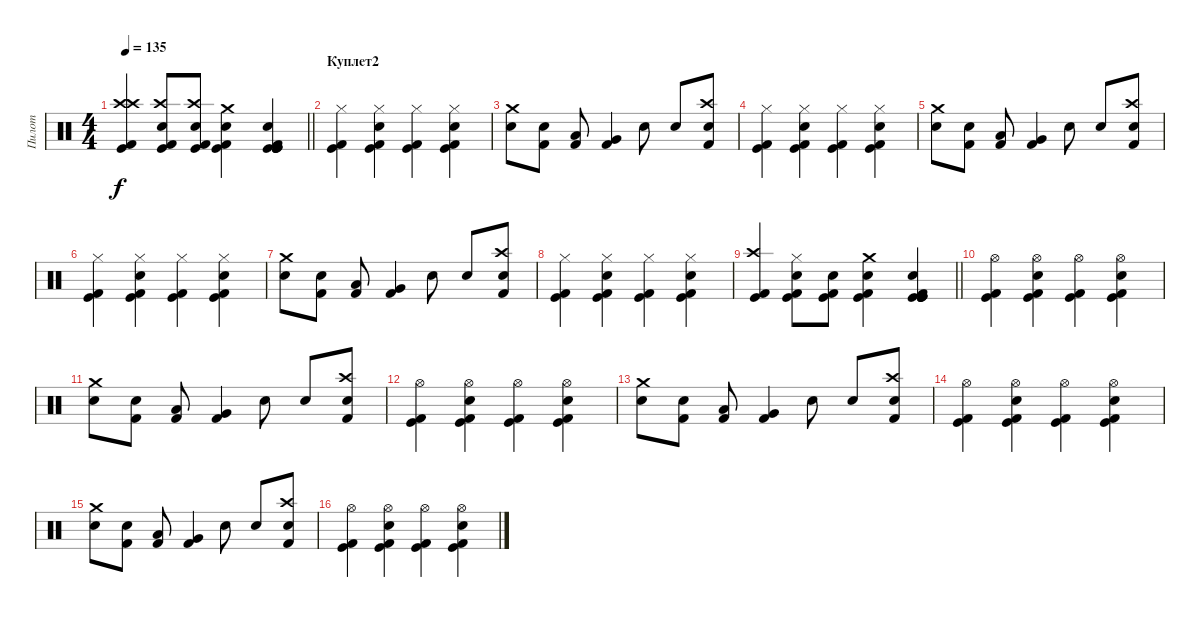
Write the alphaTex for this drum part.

\track ("Пилот" "Пилот") {instrument percussion}
\staff {score}
\articulation defaults
\ts (4 4)
\tempo 135
\clef neutral
\barLineRight lightlight
\ks c
("Kick (hit) 2" "Crash high (hit)" "Crash high (hit)" "Kick (hit)").4{dy f} ("Kick (hit) 2" "Snare (hit) 2" "Crash high (hit)" "Kick (hit)").8 ("Kick (hit) 2" "Snare (hit) 2" "Crash high (hit)" "Kick (hit)").8 ("Kick (hit) 2" "Snare (hit) 2" "Crash medium (hit)" "Kick (hit)").4 ("Kick (hit) 2" "Snare (hit) 2" "Kick (hit)" "Kick (hit)" "Kick (hit)" "Kick (hit)").4 |
\section ("" "Куплет2")
("Kick (hit) 2" "Hi-Hat (closed)" "Kick (hit)").4 ("Kick (hit) 2" "Snare (hit) 2" "Hi-Hat (closed)" "Kick (hit)").4 ("Kick (hit) 2" "Hi-Hat (closed)" "Kick (hit)").4 ("Kick (hit) 2" "Snare (hit) 2" "Hi-Hat (closed)" "Kick (hit)").4 |
("Crash medium (hit)" "Snare (hit) 2").8 ("Kick (hit) 2" "Snare (hit) 2").8 ("Kick (hit) 2" "Low Tom (hit)").8 ("Kick (hit) 2" "Very Low Tom (hit)").4 "Snare (hit) 2".8 "Snare (hit) 2".8 ("Kick (hit) 2" "Crash high (hit)" "Snare (hit) 2").8 |
("Kick (hit) 2" "Hi-Hat (closed)" "Kick (hit)").4 ("Kick (hit) 2" "Snare (hit) 2" "Hi-Hat (closed)" "Kick (hit)").4 ("Kick (hit) 2" "Hi-Hat (closed)" "Kick (hit)").4 ("Kick (hit) 2" "Snare (hit) 2" "Hi-Hat (closed)" "Kick (hit)").4 |
("Crash medium (hit)" "Snare (hit) 2").8 ("Kick (hit) 2" "Snare (hit) 2").8 ("Kick (hit) 2" "Low Tom (hit)").8 ("Kick (hit) 2" "Very Low Tom (hit)").4 "Snare (hit) 2".8 "Snare (hit) 2".8 ("Kick (hit) 2" "Crash high (hit)" "Snare (hit) 2").8 |
("Kick (hit) 2" "Hi-Hat (closed)" "Kick (hit)").4 ("Kick (hit) 2" "Snare (hit) 2" "Hi-Hat (closed)" "Kick (hit)").4 ("Kick (hit) 2" "Hi-Hat (closed)" "Kick (hit)").4 ("Kick (hit) 2" "Snare (hit) 2" "Hi-Hat (closed)" "Kick (hit)").4 |
("Crash medium (hit)" "Snare (hit) 2").8 ("Kick (hit) 2" "Snare (hit) 2").8 ("Kick (hit) 2" "Low Tom (hit)").8 ("Kick (hit) 2" "Very Low Tom (hit)").4 "Snare (hit) 2".8 "Snare (hit) 2".8 ("Kick (hit) 2" "Crash high (hit)" "Snare (hit) 2").8 |
("Kick (hit) 2" "Hi-Hat (closed)" "Kick (hit)").4 ("Kick (hit) 2" "Snare (hit) 2" "Hi-Hat (closed)" "Kick (hit)").4 ("Kick (hit) 2" "Hi-Hat (closed)" "Kick (hit)").4 ("Kick (hit) 2" "Snare (hit) 2" "Hi-Hat (closed)" "Kick (hit)").4 |
\barLineRight lightlight
("Kick (hit) 2" "Crash high (hit)" "Kick (hit)").4 ("Kick (hit) 2" "Snare (hit) 2" "Hi-Hat (closed)" "Kick (hit)").8 ("Kick (hit) 2" "Snare (hit) 2" "Kick (hit)").8 ("Kick (hit) 2" "Snare (hit) 2" "Crash medium (hit)" "Kick (hit)").4 ("Kick (hit) 2" "Snare (hit) 2" "Kick (hit)" "Kick (hit)" "Kick (hit)" "Kick (hit)").4 |
("Kick (hit) 2" "Hi-Hat (open)" "Kick (hit)").4 ("Kick (hit) 2" "Snare (hit) 2" "Hi-Hat (open)" "Kick (hit)").4 ("Kick (hit) 2" "Hi-Hat (open)" "Kick (hit)").4 ("Kick (hit) 2" "Snare (hit) 2" "Hi-Hat (open)" "Kick (hit)").4 |
("Crash medium (hit)" "Snare (hit) 2").8 ("Kick (hit) 2" "Snare (hit) 2").8 ("Kick (hit) 2" "Low Tom (hit)").8 ("Kick (hit) 2" "Very Low Tom (hit)").4 "Snare (hit) 2".8 "Snare (hit) 2".8 ("Kick (hit) 2" "Crash high (hit)" "Snare (hit) 2").8 |
("Kick (hit) 2" "Hi-Hat (open)" "Kick (hit)").4 ("Kick (hit) 2" "Snare (hit) 2" "Hi-Hat (open)" "Kick (hit)").4 ("Kick (hit) 2" "Hi-Hat (open)" "Kick (hit)").4 ("Kick (hit) 2" "Snare (hit) 2" "Hi-Hat (open)" "Kick (hit)").4 |
("Crash medium (hit)" "Snare (hit) 2").8 ("Kick (hit) 2" "Snare (hit) 2").8 ("Kick (hit) 2" "Low Tom (hit)").8 ("Kick (hit) 2" "Very Low Tom (hit)").4 "Snare (hit) 2".8 "Snare (hit) 2".8 ("Kick (hit) 2" "Crash high (hit)" "Snare (hit) 2").8 |
("Kick (hit) 2" "Hi-Hat (open)" "Kick (hit)").4 ("Kick (hit) 2" "Snare (hit) 2" "Hi-Hat (open)" "Kick (hit)").4 ("Kick (hit) 2" "Hi-Hat (open)" "Kick (hit)").4 ("Kick (hit) 2" "Snare (hit) 2" "Hi-Hat (open)" "Kick (hit)").4 |
("Crash medium (hit)" "Snare (hit) 2").8 ("Kick (hit) 2" "Snare (hit) 2").8 ("Kick (hit) 2" "Low Tom (hit)").8 ("Kick (hit) 2" "Very Low Tom (hit)").4 "Snare (hit) 2".8 "Snare (hit) 2".8 ("Kick (hit) 2" "Crash high (hit)" "Snare (hit) 2").8 |
("Kick (hit) 2" "Hi-Hat (open)" "Kick (hit)").4 ("Kick (hit) 2" "Snare (hit) 2" "Hi-Hat (open)" "Kick (hit)").4 ("Kick (hit) 2" "Hi-Hat (open)" "Kick (hit)").4 ("Kick (hit) 2" "Snare (hit) 2" "Hi-Hat (open)" "Kick (hit)").4
